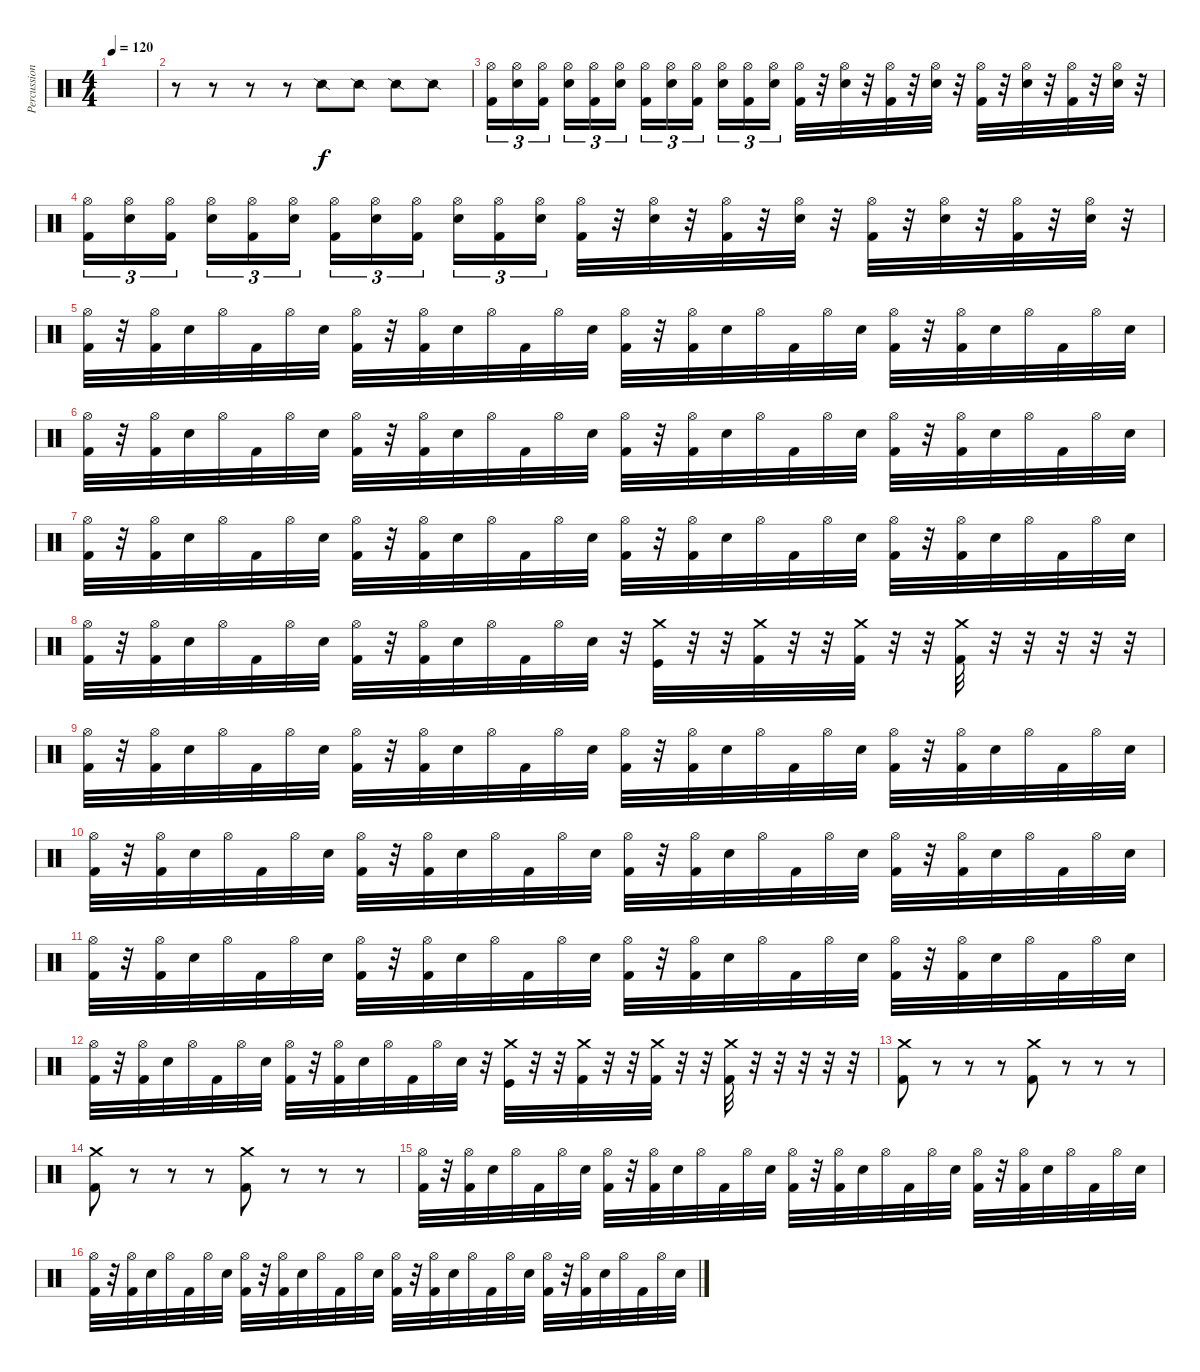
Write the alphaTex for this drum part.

\track ("Percussion" "Percussion") {instrument percussion}
\staff {score}
\articulation defaults
\ts (4 4)
\tempo 120
\clef neutral
\ks c
|
r.8 r.8 r.8 r.8 "Snare (side stick) 2".8 "Snare (side stick) 2".8 "Snare (side stick) 2".8 "Snare (side stick) 2".8 |
("Hi-Hat (open)" "Kick (hit) 2").16{tu (3 2)} ("Hi-Hat (open)" "Electric Snare (hit)").16{tu (3 2)} ("Hi-Hat (open)" "Kick (hit) 2").16{tu (3 2)} ("Hi-Hat (open)" "Electric Snare (hit)").16{tu (3 2)} ("Hi-Hat (open)" "Kick (hit) 2").16{tu (3 2)} ("Hi-Hat (open)" "Electric Snare (hit)").16{tu (3 2)} ("Hi-Hat (open)" "Kick (hit) 2").16{tu (3 2)} ("Hi-Hat (open)" "Electric Snare (hit)").16{tu (3 2)} ("Hi-Hat (open)" "Kick (hit) 2").16{tu (3 2)} ("Hi-Hat (open)" "Electric Snare (hit)").16{tu (3 2)} ("Hi-Hat (open)" "Kick (hit) 2").16{tu (3 2)} ("Hi-Hat (open)" "Electric Snare (hit)").16{tu (3 2)} ("Hi-Hat (open)" "Kick (hit) 2").32 r.32 ("Hi-Hat (open)" "Electric Snare (hit)").32 r.32 ("Hi-Hat (open)" "Kick (hit) 2").32 r.32 ("Hi-Hat (open)" "Electric Snare (hit)").32 r.32 ("Hi-Hat (open)" "Kick (hit) 2").32 r.32 ("Hi-Hat (open)" "Electric Snare (hit)").32 r.32 ("Hi-Hat (open)" "Kick (hit) 2").32 r.32 ("Hi-Hat (open)" "Electric Snare (hit)").32 r.32 |
("Hi-Hat (open)" "Kick (hit) 2").16{tu (3 2)} ("Hi-Hat (open)" "Electric Snare (hit)").16{tu (3 2)} ("Hi-Hat (open)" "Kick (hit) 2").16{tu (3 2)} ("Hi-Hat (open)" "Electric Snare (hit)").16{tu (3 2)} ("Hi-Hat (open)" "Kick (hit) 2").16{tu (3 2)} ("Hi-Hat (open)" "Electric Snare (hit)").16{tu (3 2)} ("Hi-Hat (open)" "Kick (hit) 2").16{tu (3 2)} ("Hi-Hat (open)" "Electric Snare (hit)").16{tu (3 2)} ("Hi-Hat (open)" "Kick (hit) 2").16{tu (3 2)} ("Hi-Hat (open)" "Electric Snare (hit)").16{tu (3 2)} ("Hi-Hat (open)" "Kick (hit) 2").16{tu (3 2)} ("Hi-Hat (open)" "Electric Snare (hit)").16{tu (3 2)} ("Hi-Hat (open)" "Kick (hit) 2").32 r.32 ("Hi-Hat (open)" "Electric Snare (hit)").32 r.32 ("Hi-Hat (open)" "Kick (hit) 2").32 r.32 ("Hi-Hat (open)" "Electric Snare (hit)").32 r.32 ("Hi-Hat (open)" "Kick (hit) 2").32 r.32 ("Hi-Hat (open)" "Electric Snare (hit)").32 r.32 ("Hi-Hat (open)" "Kick (hit) 2").32 r.32 ("Hi-Hat (open)" "Electric Snare (hit)").32 r.32 |
("Hi-Hat (open)" "Kick (hit) 2").32 r.32 ("Hi-Hat (open)" "Kick (hit) 2").32 "Electric Snare (hit)".32 "Hi-Hat (open)".32 "Kick (hit) 2".32 "Hi-Hat (open)".32 "Electric Snare (hit)".32 ("Hi-Hat (open)" "Kick (hit) 2").32 r.32 ("Hi-Hat (open)" "Kick (hit) 2").32 "Electric Snare (hit)".32 "Hi-Hat (open)".32 "Kick (hit) 2".32 "Hi-Hat (open)".32 "Electric Snare (hit)".32 ("Hi-Hat (open)" "Kick (hit) 2").32 r.32 ("Hi-Hat (open)" "Kick (hit) 2").32 "Electric Snare (hit)".32 "Hi-Hat (open)".32 "Kick (hit) 2".32 "Hi-Hat (open)".32 "Electric Snare (hit)".32 ("Hi-Hat (open)" "Kick (hit) 2").32 r.32 ("Hi-Hat (open)" "Kick (hit) 2").32 "Electric Snare (hit)".32 "Hi-Hat (open)".32 "Kick (hit) 2".32 "Hi-Hat (open)".32 "Electric Snare (hit)".32 |
("Hi-Hat (open)" "Kick (hit) 2").32 r.32 ("Hi-Hat (open)" "Kick (hit) 2").32 "Electric Snare (hit)".32 "Hi-Hat (open)".32 "Kick (hit) 2".32 "Hi-Hat (open)".32 "Electric Snare (hit)".32 ("Hi-Hat (open)" "Kick (hit) 2").32 r.32 ("Hi-Hat (open)" "Kick (hit) 2").32 "Electric Snare (hit)".32 "Hi-Hat (open)".32 "Kick (hit) 2".32 "Hi-Hat (open)".32 "Electric Snare (hit)".32 ("Hi-Hat (open)" "Kick (hit) 2").32 r.32 ("Hi-Hat (open)" "Kick (hit) 2").32 "Electric Snare (hit)".32 "Hi-Hat (open)".32 "Kick (hit) 2".32 "Hi-Hat (open)".32 "Electric Snare (hit)".32 ("Hi-Hat (open)" "Kick (hit) 2").32 r.32 ("Hi-Hat (open)" "Kick (hit) 2").32 "Electric Snare (hit)".32 "Hi-Hat (open)".32 "Kick (hit) 2".32 "Hi-Hat (open)".32 "Electric Snare (hit)".32 |
("Hi-Hat (open)" "Kick (hit) 2").32 r.32 ("Hi-Hat (open)" "Kick (hit) 2").32 "Electric Snare (hit)".32 "Hi-Hat (open)".32 "Kick (hit) 2".32 "Hi-Hat (open)".32 "Electric Snare (hit)".32 ("Hi-Hat (open)" "Kick (hit) 2").32 r.32 ("Hi-Hat (open)" "Kick (hit) 2").32 "Electric Snare (hit)".32 "Hi-Hat (open)".32 "Kick (hit) 2".32 "Hi-Hat (open)".32 "Electric Snare (hit)".32 ("Hi-Hat (open)" "Kick (hit) 2").32 r.32 ("Hi-Hat (open)" "Kick (hit) 2").32 "Electric Snare (hit)".32 "Hi-Hat (open)".32 "Kick (hit) 2".32 "Hi-Hat (open)".32 "Electric Snare (hit)".32 ("Hi-Hat (open)" "Kick (hit) 2").32 r.32 ("Hi-Hat (open)" "Kick (hit) 2").32 "Electric Snare (hit)".32 "Hi-Hat (open)".32 "Kick (hit) 2".32 "Hi-Hat (open)".32 "Electric Snare (hit)".32 |
("Hi-Hat (open)" "Kick (hit) 2").32 r.32 ("Hi-Hat (open)" "Kick (hit) 2").32 "Electric Snare (hit)".32 "Hi-Hat (open)".32 "Kick (hit) 2".32 "Hi-Hat (open)".32 "Electric Snare (hit)".32 ("Hi-Hat (open)" "Kick (hit) 2").32 r.32 ("Hi-Hat (open)" "Kick (hit) 2").32 "Electric Snare (hit)".32 "Hi-Hat (open)".32 "Kick (hit) 2".32 "Hi-Hat (open)".32 "Electric Snare (hit)".32 r.32 ("Crash medium (hit)" "Kick (hit)").32 r.32 r.32 ("Crash medium (hit)" "Kick (hit) 2").32 r.32 r.32 ("Crash medium (hit)" "Kick (hit) 2").32 r.32 r.32 ("Crash medium (hit)" "Kick (hit) 2").32 r.32 r.32 r.32 r.32 r.32 |
("Hi-Hat (open)" "Kick (hit) 2").32 r.32 ("Hi-Hat (open)" "Kick (hit) 2").32 "Electric Snare (hit)".32 "Hi-Hat (open)".32 "Kick (hit) 2".32 "Hi-Hat (open)".32 "Electric Snare (hit)".32 ("Hi-Hat (open)" "Kick (hit) 2").32 r.32 ("Hi-Hat (open)" "Kick (hit) 2").32 "Electric Snare (hit)".32 "Hi-Hat (open)".32 "Kick (hit) 2".32 "Hi-Hat (open)".32 "Electric Snare (hit)".32 ("Hi-Hat (open)" "Kick (hit) 2").32 r.32 ("Hi-Hat (open)" "Kick (hit) 2").32 "Electric Snare (hit)".32 "Hi-Hat (open)".32 "Kick (hit) 2".32 "Hi-Hat (open)".32 "Electric Snare (hit)".32 ("Hi-Hat (open)" "Kick (hit) 2").32 r.32 ("Hi-Hat (open)" "Kick (hit) 2").32 "Electric Snare (hit)".32 "Hi-Hat (open)".32 "Kick (hit) 2".32 "Hi-Hat (open)".32 "Electric Snare (hit)".32 |
("Hi-Hat (open)" "Kick (hit) 2").32 r.32 ("Hi-Hat (open)" "Kick (hit) 2").32 "Electric Snare (hit)".32 "Hi-Hat (open)".32 "Kick (hit) 2".32 "Hi-Hat (open)".32 "Electric Snare (hit)".32 ("Hi-Hat (open)" "Kick (hit) 2").32 r.32 ("Hi-Hat (open)" "Kick (hit) 2").32 "Electric Snare (hit)".32 "Hi-Hat (open)".32 "Kick (hit) 2".32 "Hi-Hat (open)".32 "Electric Snare (hit)".32 ("Hi-Hat (open)" "Kick (hit) 2").32 r.32 ("Hi-Hat (open)" "Kick (hit) 2").32 "Electric Snare (hit)".32 "Hi-Hat (open)".32 "Kick (hit) 2".32 "Hi-Hat (open)".32 "Electric Snare (hit)".32 ("Hi-Hat (open)" "Kick (hit) 2").32 r.32 ("Hi-Hat (open)" "Kick (hit) 2").32 "Electric Snare (hit)".32 "Hi-Hat (open)".32 "Kick (hit) 2".32 "Hi-Hat (open)".32 "Electric Snare (hit)".32 |
("Hi-Hat (open)" "Kick (hit) 2").32 r.32 ("Hi-Hat (open)" "Kick (hit) 2").32 "Electric Snare (hit)".32 "Hi-Hat (open)".32 "Kick (hit) 2".32 "Hi-Hat (open)".32 "Electric Snare (hit)".32 ("Hi-Hat (open)" "Kick (hit) 2").32 r.32 ("Hi-Hat (open)" "Kick (hit) 2").32 "Electric Snare (hit)".32 "Hi-Hat (open)".32 "Kick (hit) 2".32 "Hi-Hat (open)".32 "Electric Snare (hit)".32 ("Hi-Hat (open)" "Kick (hit) 2").32 r.32 ("Hi-Hat (open)" "Kick (hit) 2").32 "Electric Snare (hit)".32 "Hi-Hat (open)".32 "Kick (hit) 2".32 "Hi-Hat (open)".32 "Electric Snare (hit)".32 ("Hi-Hat (open)" "Kick (hit) 2").32 r.32 ("Hi-Hat (open)" "Kick (hit) 2").32 "Electric Snare (hit)".32 "Hi-Hat (open)".32 "Kick (hit) 2".32 "Hi-Hat (open)".32 "Electric Snare (hit)".32 |
("Hi-Hat (open)" "Kick (hit) 2").32 r.32 ("Hi-Hat (open)" "Kick (hit) 2").32 "Electric Snare (hit)".32 "Hi-Hat (open)".32 "Kick (hit) 2".32 "Hi-Hat (open)".32 "Electric Snare (hit)".32 ("Hi-Hat (open)" "Kick (hit) 2").32 r.32 ("Hi-Hat (open)" "Kick (hit) 2").32 "Electric Snare (hit)".32 "Hi-Hat (open)".32 "Kick (hit) 2".32 "Hi-Hat (open)".32 "Electric Snare (hit)".32 r.32 ("Crash medium (hit)" "Kick (hit)").32 r.32 r.32 ("Crash medium (hit)" "Kick (hit) 2").32 r.32 r.32 ("Crash medium (hit)" "Kick (hit) 2").32 r.32 r.32 ("Crash medium (hit)" "Kick (hit) 2").32 r.32 r.32 r.32 r.32 r.32 |
("Crash medium (hit)" "Kick (hit) 2").8 r.8 r.8 r.8 ("Crash medium (hit)" "Kick (hit) 2").8 r.8 r.8 r.8 |
("Crash medium (hit)" "Kick (hit) 2").8 r.8 r.8 r.8 ("Crash medium (hit)" "Kick (hit) 2").8 r.8 r.8 r.8 |
("Hi-Hat (open)" "Kick (hit) 2").32 r.32 ("Hi-Hat (open)" "Kick (hit) 2").32 "Electric Snare (hit)".32 "Hi-Hat (open)".32 "Kick (hit) 2".32 "Hi-Hat (open)".32 "Electric Snare (hit)".32 ("Hi-Hat (open)" "Kick (hit) 2").32 r.32 ("Hi-Hat (open)" "Kick (hit) 2").32 "Electric Snare (hit)".32 "Hi-Hat (open)".32 "Kick (hit) 2".32 "Hi-Hat (open)".32 "Electric Snare (hit)".32 ("Hi-Hat (open)" "Kick (hit) 2").32 r.32 ("Hi-Hat (open)" "Kick (hit) 2").32 "Electric Snare (hit)".32 "Hi-Hat (open)".32 "Kick (hit) 2".32 "Hi-Hat (open)".32 "Electric Snare (hit)".32 ("Hi-Hat (open)" "Kick (hit) 2").32 r.32 ("Hi-Hat (open)" "Kick (hit) 2").32 "Electric Snare (hit)".32 "Hi-Hat (open)".32 "Kick (hit) 2".32 "Hi-Hat (open)".32 "Electric Snare (hit)".32 |
("Hi-Hat (open)" "Kick (hit) 2").32 r.32 ("Hi-Hat (open)" "Kick (hit) 2").32 "Electric Snare (hit)".32 "Hi-Hat (open)".32 "Kick (hit) 2".32 "Hi-Hat (open)".32 "Electric Snare (hit)".32 ("Hi-Hat (open)" "Kick (hit) 2").32 r.32 ("Hi-Hat (open)" "Kick (hit) 2").32 "Electric Snare (hit)".32 "Hi-Hat (open)".32 "Kick (hit) 2".32 "Hi-Hat (open)".32 "Electric Snare (hit)".32 ("Hi-Hat (open)" "Kick (hit) 2").32 r.32 ("Hi-Hat (open)" "Kick (hit) 2").32 "Electric Snare (hit)".32 "Hi-Hat (open)".32 "Kick (hit) 2".32 "Hi-Hat (open)".32 "Electric Snare (hit)".32 ("Hi-Hat (open)" "Kick (hit) 2").32 r.32 ("Hi-Hat (open)" "Kick (hit) 2").32 "Electric Snare (hit)".32 "Hi-Hat (open)".32 "Kick (hit) 2".32 "Hi-Hat (open)".32 "Electric Snare (hit)".32
